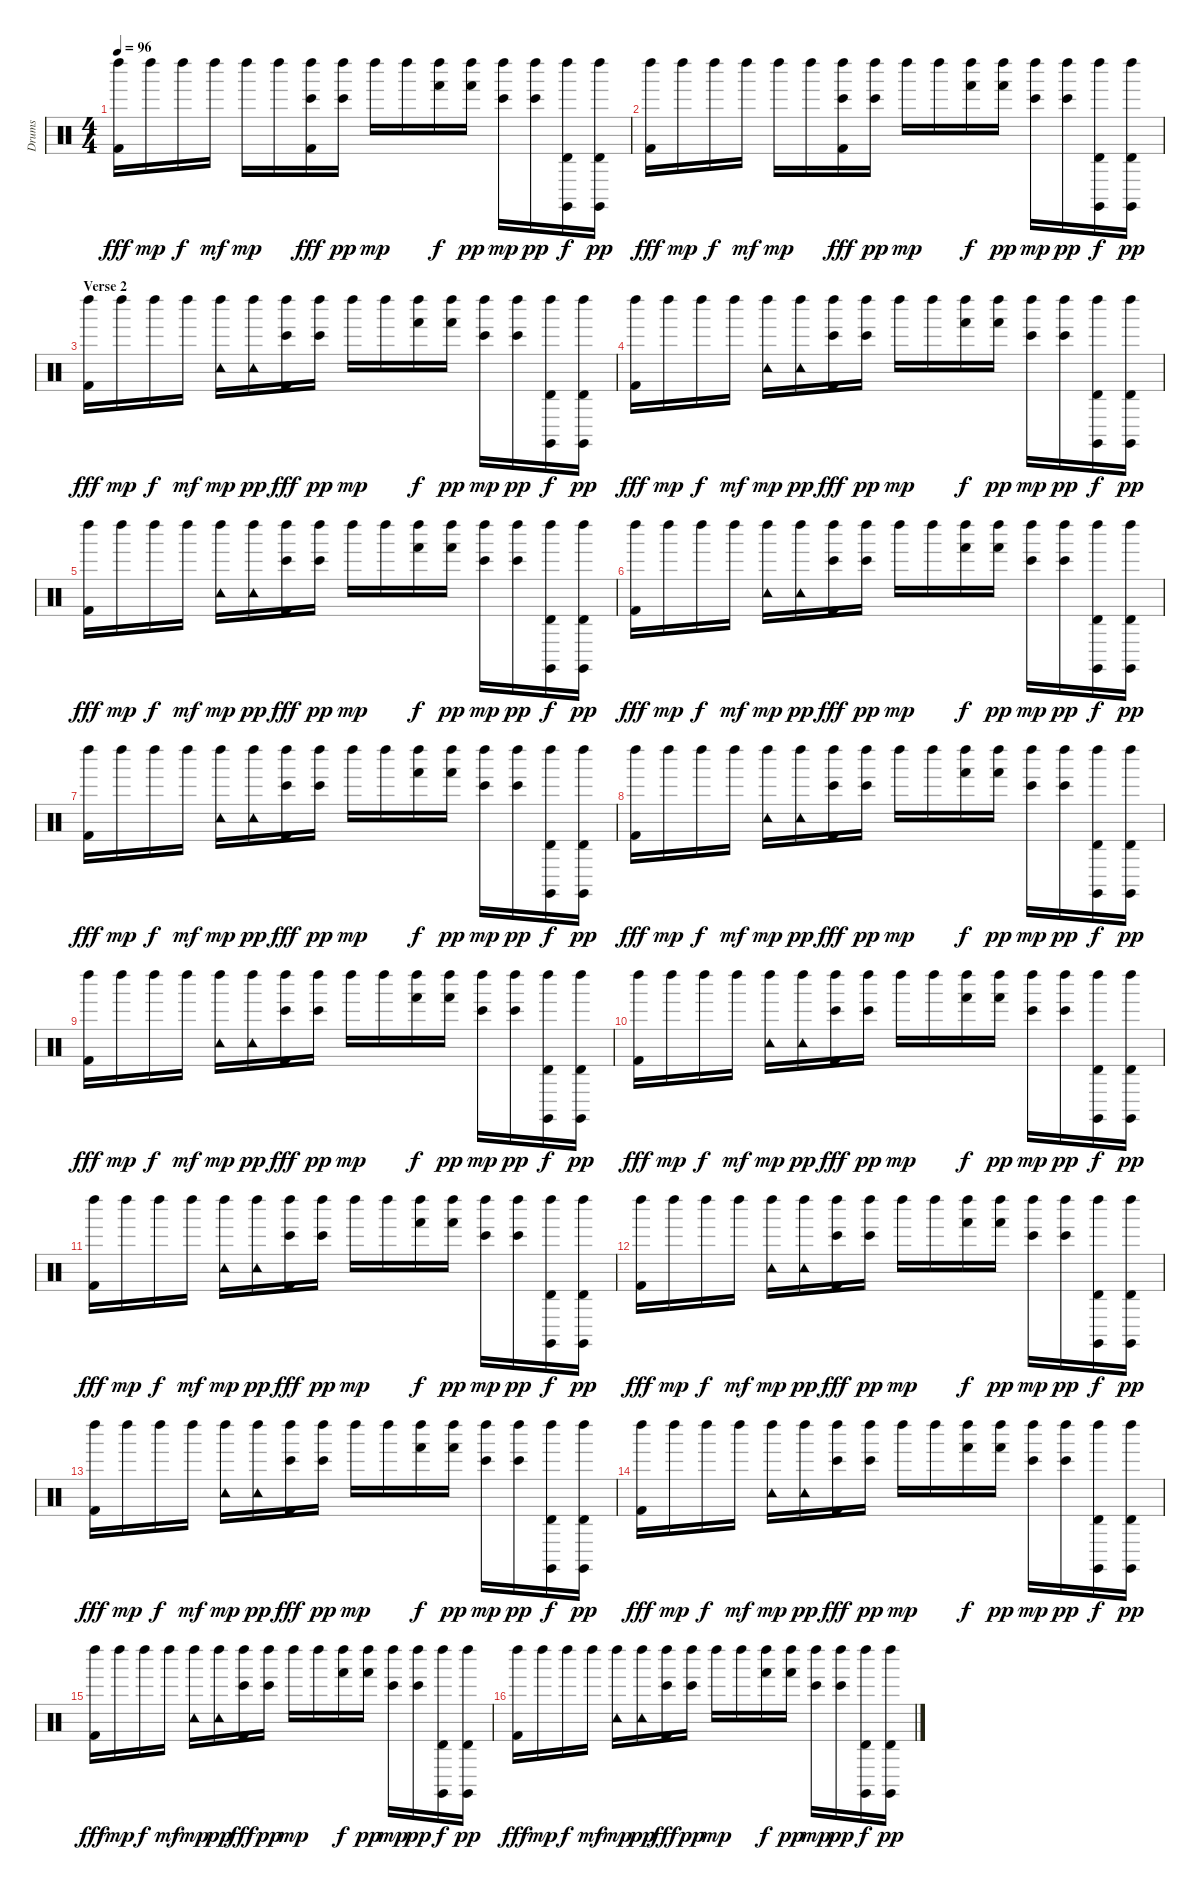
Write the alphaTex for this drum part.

\track ("Drums" "Drums") {instrument percussion}
\staff {score}
\articulation defaults
\ts (4 4)
\tempo 96
\clef neutral
\ks c
("Left Maraca (hit)" "Kick (hit) 2").16{dy fff} "Left Maraca (hit)".16{dy mp} "Left Maraca (hit)".16{dy f} "Left Maraca (hit)".16{dy mf} "Left Maraca (hit)".16{dy mp} "Left Maraca (hit)".16 ("Left Maraca (hit)" "Bongo High (hit)" "Kick (hit) 2").16{dy fff} ("Left Maraca (hit)" "Bongo High (hit)").16{dy pp} "Left Maraca (hit)".16{dy mp} "Left Maraca (hit)".16 ("Left Maraca (hit)" "Hand (hit)").16{dy f} ("Left Maraca (hit)" "Hand (hit)").16{dy pp} ("Left Maraca (hit)" "Bongo High (hit)").16{dy mp} ("Left Maraca (hit)" "Bongo High (hit)").16{dy pp} ("Left Maraca (hit)" "Claves (hit)" "Timbale high (hit)").16{dy f} ("Left Maraca (hit)" "Claves (hit)" "Timbale high (hit)").16{dy pp} |
("Left Maraca (hit)" "Kick (hit) 2").16{dy fff} "Left Maraca (hit)".16{dy mp} "Left Maraca (hit)".16{dy f} "Left Maraca (hit)".16{dy mf} "Left Maraca (hit)".16{dy mp} "Left Maraca (hit)".16 ("Left Maraca (hit)" "Bongo High (hit)" "Kick (hit) 2").16{dy fff} ("Left Maraca (hit)" "Bongo High (hit)").16{dy pp} "Left Maraca (hit)".16{dy mp} "Left Maraca (hit)".16 ("Left Maraca (hit)" "Hand (hit)").16{dy f} ("Left Maraca (hit)" "Hand (hit)").16{dy pp} ("Left Maraca (hit)" "Bongo High (hit)").16{dy mp} ("Left Maraca (hit)" "Bongo High (hit)").16{dy pp} ("Left Maraca (hit)" "Claves (hit)" "Timbale high (hit)").16{dy f} ("Left Maraca (hit)" "Claves (hit)" "Timbale high (hit)").16{dy pp} |
\section ("" "Verse 2")
("Left Maraca (hit)" "Kick (hit) 2").16{dy fff} "Left Maraca (hit)".16{dy mp} "Left Maraca (hit)".16{dy f} "Left Maraca (hit)".16{dy mf} ("Left Maraca (hit)" "Tambourine (hit)").16{dy mp} ("Left Maraca (hit)" "Tambourine (hit)").16{dy pp} ("Left Maraca (hit)" "Bongo High (hit)" "Kick (hit) 2").16{dy fff} ("Left Maraca (hit)" "Bongo High (hit)").16{dy pp} "Left Maraca (hit)".16{dy mp} "Left Maraca (hit)".16 ("Left Maraca (hit)" "Hand (hit)").16{dy f} ("Left Maraca (hit)" "Hand (hit)").16{dy pp} ("Left Maraca (hit)" "Bongo High (hit)").16{dy mp} ("Left Maraca (hit)" "Bongo High (hit)").16{dy pp} ("Left Maraca (hit)" "Claves (hit)" "Timbale high (hit)").16{dy f} ("Left Maraca (hit)" "Claves (hit)" "Timbale high (hit)").16{dy pp} |
("Left Maraca (hit)" "Kick (hit) 2").16{dy fff} "Left Maraca (hit)".16{dy mp} "Left Maraca (hit)".16{dy f} "Left Maraca (hit)".16{dy mf} ("Left Maraca (hit)" "Tambourine (hit)").16{dy mp} ("Left Maraca (hit)" "Tambourine (hit)").16{dy pp} ("Left Maraca (hit)" "Bongo High (hit)" "Kick (hit) 2").16{dy fff} ("Left Maraca (hit)" "Bongo High (hit)").16{dy pp} "Left Maraca (hit)".16{dy mp} "Left Maraca (hit)".16 ("Left Maraca (hit)" "Hand (hit)").16{dy f} ("Left Maraca (hit)" "Hand (hit)").16{dy pp} ("Left Maraca (hit)" "Bongo High (hit)").16{dy mp} ("Left Maraca (hit)" "Bongo High (hit)").16{dy pp} ("Left Maraca (hit)" "Claves (hit)" "Timbale high (hit)").16{dy f} ("Left Maraca (hit)" "Claves (hit)" "Timbale high (hit)").16{dy pp} |
("Left Maraca (hit)" "Kick (hit) 2").16{dy fff} "Left Maraca (hit)".16{dy mp} "Left Maraca (hit)".16{dy f} "Left Maraca (hit)".16{dy mf} ("Left Maraca (hit)" "Tambourine (hit)").16{dy mp} ("Left Maraca (hit)" "Tambourine (hit)").16{dy pp} ("Left Maraca (hit)" "Bongo High (hit)" "Kick (hit) 2").16{dy fff} ("Left Maraca (hit)" "Bongo High (hit)").16{dy pp} "Left Maraca (hit)".16{dy mp} "Left Maraca (hit)".16 ("Left Maraca (hit)" "Hand (hit)").16{dy f} ("Left Maraca (hit)" "Hand (hit)").16{dy pp} ("Left Maraca (hit)" "Bongo High (hit)").16{dy mp} ("Left Maraca (hit)" "Bongo High (hit)").16{dy pp} ("Left Maraca (hit)" "Claves (hit)" "Timbale high (hit)").16{dy f} ("Left Maraca (hit)" "Claves (hit)" "Timbale high (hit)").16{dy pp} |
("Left Maraca (hit)" "Kick (hit) 2").16{dy fff} "Left Maraca (hit)".16{dy mp} "Left Maraca (hit)".16{dy f} "Left Maraca (hit)".16{dy mf} ("Left Maraca (hit)" "Tambourine (hit)").16{dy mp} ("Left Maraca (hit)" "Tambourine (hit)").16{dy pp} ("Left Maraca (hit)" "Bongo High (hit)" "Kick (hit) 2").16{dy fff} ("Left Maraca (hit)" "Bongo High (hit)").16{dy pp} "Left Maraca (hit)".16{dy mp} "Left Maraca (hit)".16 ("Left Maraca (hit)" "Hand (hit)").16{dy f} ("Left Maraca (hit)" "Hand (hit)").16{dy pp} ("Left Maraca (hit)" "Bongo High (hit)").16{dy mp} ("Left Maraca (hit)" "Bongo High (hit)").16{dy pp} ("Left Maraca (hit)" "Claves (hit)" "Timbale high (hit)").16{dy f} ("Left Maraca (hit)" "Claves (hit)" "Timbale high (hit)").16{dy pp} |
("Left Maraca (hit)" "Kick (hit) 2").16{dy fff} "Left Maraca (hit)".16{dy mp} "Left Maraca (hit)".16{dy f} "Left Maraca (hit)".16{dy mf} ("Left Maraca (hit)" "Tambourine (hit)").16{dy mp} ("Left Maraca (hit)" "Tambourine (hit)").16{dy pp} ("Left Maraca (hit)" "Bongo High (hit)" "Kick (hit) 2").16{dy fff} ("Left Maraca (hit)" "Bongo High (hit)").16{dy pp} "Left Maraca (hit)".16{dy mp} "Left Maraca (hit)".16 ("Left Maraca (hit)" "Hand (hit)").16{dy f} ("Left Maraca (hit)" "Hand (hit)").16{dy pp} ("Left Maraca (hit)" "Bongo High (hit)").16{dy mp} ("Left Maraca (hit)" "Bongo High (hit)").16{dy pp} ("Left Maraca (hit)" "Claves (hit)" "Timbale high (hit)").16{dy f} ("Left Maraca (hit)" "Claves (hit)" "Timbale high (hit)").16{dy pp} |
("Left Maraca (hit)" "Kick (hit) 2").16{dy fff} "Left Maraca (hit)".16{dy mp} "Left Maraca (hit)".16{dy f} "Left Maraca (hit)".16{dy mf} ("Left Maraca (hit)" "Tambourine (hit)").16{dy mp} ("Left Maraca (hit)" "Tambourine (hit)").16{dy pp} ("Left Maraca (hit)" "Bongo High (hit)" "Kick (hit) 2").16{dy fff} ("Left Maraca (hit)" "Bongo High (hit)").16{dy pp} "Left Maraca (hit)".16{dy mp} "Left Maraca (hit)".16 ("Left Maraca (hit)" "Hand (hit)").16{dy f} ("Left Maraca (hit)" "Hand (hit)").16{dy pp} ("Left Maraca (hit)" "Bongo High (hit)").16{dy mp} ("Left Maraca (hit)" "Bongo High (hit)").16{dy pp} ("Left Maraca (hit)" "Claves (hit)" "Timbale high (hit)").16{dy f} ("Left Maraca (hit)" "Claves (hit)" "Timbale high (hit)").16{dy pp} |
("Left Maraca (hit)" "Kick (hit) 2").16{dy fff} "Left Maraca (hit)".16{dy mp} "Left Maraca (hit)".16{dy f} "Left Maraca (hit)".16{dy mf} ("Left Maraca (hit)" "Tambourine (hit)").16{dy mp} ("Left Maraca (hit)" "Tambourine (hit)").16{dy pp} ("Left Maraca (hit)" "Bongo High (hit)" "Kick (hit) 2").16{dy fff} ("Left Maraca (hit)" "Bongo High (hit)").16{dy pp} "Left Maraca (hit)".16{dy mp} "Left Maraca (hit)".16 ("Left Maraca (hit)" "Hand (hit)").16{dy f} ("Left Maraca (hit)" "Hand (hit)").16{dy pp} ("Left Maraca (hit)" "Bongo High (hit)").16{dy mp} ("Left Maraca (hit)" "Bongo High (hit)").16{dy pp} ("Left Maraca (hit)" "Claves (hit)" "Timbale high (hit)").16{dy f} ("Left Maraca (hit)" "Claves (hit)" "Timbale high (hit)").16{dy pp} |
("Left Maraca (hit)" "Kick (hit) 2").16{dy fff} "Left Maraca (hit)".16{dy mp} "Left Maraca (hit)".16{dy f} "Left Maraca (hit)".16{dy mf} ("Left Maraca (hit)" "Tambourine (hit)").16{dy mp} ("Left Maraca (hit)" "Tambourine (hit)").16{dy pp} ("Left Maraca (hit)" "Bongo High (hit)" "Kick (hit) 2").16{dy fff} ("Left Maraca (hit)" "Bongo High (hit)").16{dy pp} "Left Maraca (hit)".16{dy mp} "Left Maraca (hit)".16 ("Left Maraca (hit)" "Hand (hit)").16{dy f} ("Left Maraca (hit)" "Hand (hit)").16{dy pp} ("Left Maraca (hit)" "Bongo High (hit)").16{dy mp} ("Left Maraca (hit)" "Bongo High (hit)").16{dy pp} ("Left Maraca (hit)" "Claves (hit)" "Timbale high (hit)").16{dy f} ("Left Maraca (hit)" "Claves (hit)" "Timbale high (hit)").16{dy pp} |
("Left Maraca (hit)" "Kick (hit) 2").16{dy fff} "Left Maraca (hit)".16{dy mp} "Left Maraca (hit)".16{dy f} "Left Maraca (hit)".16{dy mf} ("Left Maraca (hit)" "Tambourine (hit)").16{dy mp} ("Left Maraca (hit)" "Tambourine (hit)").16{dy pp} ("Left Maraca (hit)" "Bongo High (hit)" "Kick (hit) 2").16{dy fff} ("Left Maraca (hit)" "Bongo High (hit)").16{dy pp} "Left Maraca (hit)".16{dy mp} "Left Maraca (hit)".16 ("Left Maraca (hit)" "Hand (hit)").16{dy f} ("Left Maraca (hit)" "Hand (hit)").16{dy pp} ("Left Maraca (hit)" "Bongo High (hit)").16{dy mp} ("Left Maraca (hit)" "Bongo High (hit)").16{dy pp} ("Left Maraca (hit)" "Claves (hit)" "Timbale high (hit)").16{dy f} ("Left Maraca (hit)" "Claves (hit)" "Timbale high (hit)").16{dy pp} |
("Left Maraca (hit)" "Kick (hit) 2").16{dy fff} "Left Maraca (hit)".16{dy mp} "Left Maraca (hit)".16{dy f} "Left Maraca (hit)".16{dy mf} ("Left Maraca (hit)" "Tambourine (hit)").16{dy mp} ("Left Maraca (hit)" "Tambourine (hit)").16{dy pp} ("Left Maraca (hit)" "Bongo High (hit)" "Kick (hit) 2").16{dy fff} ("Left Maraca (hit)" "Bongo High (hit)").16{dy pp} "Left Maraca (hit)".16{dy mp} "Left Maraca (hit)".16 ("Left Maraca (hit)" "Hand (hit)").16{dy f} ("Left Maraca (hit)" "Hand (hit)").16{dy pp} ("Left Maraca (hit)" "Bongo High (hit)").16{dy mp} ("Left Maraca (hit)" "Bongo High (hit)").16{dy pp} ("Left Maraca (hit)" "Claves (hit)" "Timbale high (hit)").16{dy f} ("Left Maraca (hit)" "Claves (hit)" "Timbale high (hit)").16{dy pp} |
("Left Maraca (hit)" "Kick (hit) 2").16{dy fff} "Left Maraca (hit)".16{dy mp} "Left Maraca (hit)".16{dy f} "Left Maraca (hit)".16{dy mf} ("Left Maraca (hit)" "Tambourine (hit)").16{dy mp} ("Left Maraca (hit)" "Tambourine (hit)").16{dy pp} ("Left Maraca (hit)" "Bongo High (hit)" "Kick (hit) 2").16{dy fff} ("Left Maraca (hit)" "Bongo High (hit)").16{dy pp} "Left Maraca (hit)".16{dy mp} "Left Maraca (hit)".16 ("Left Maraca (hit)" "Hand (hit)").16{dy f} ("Left Maraca (hit)" "Hand (hit)").16{dy pp} ("Left Maraca (hit)" "Bongo High (hit)").16{dy mp} ("Left Maraca (hit)" "Bongo High (hit)").16{dy pp} ("Left Maraca (hit)" "Claves (hit)" "Timbale high (hit)").16{dy f} ("Left Maraca (hit)" "Claves (hit)" "Timbale high (hit)").16{dy pp} |
("Left Maraca (hit)" "Kick (hit) 2").16{dy fff} "Left Maraca (hit)".16{dy mp} "Left Maraca (hit)".16{dy f} "Left Maraca (hit)".16{dy mf} ("Left Maraca (hit)" "Tambourine (hit)").16{dy mp} ("Left Maraca (hit)" "Tambourine (hit)").16{dy pp} ("Left Maraca (hit)" "Bongo High (hit)" "Kick (hit) 2").16{dy fff} ("Left Maraca (hit)" "Bongo High (hit)").16{dy pp} "Left Maraca (hit)".16{dy mp} "Left Maraca (hit)".16 ("Left Maraca (hit)" "Hand (hit)").16{dy f} ("Left Maraca (hit)" "Hand (hit)").16{dy pp} ("Left Maraca (hit)" "Bongo High (hit)").16{dy mp} ("Left Maraca (hit)" "Bongo High (hit)").16{dy pp} ("Left Maraca (hit)" "Claves (hit)" "Timbale high (hit)").16{dy f} ("Left Maraca (hit)" "Claves (hit)" "Timbale high (hit)").16{dy pp} |
("Left Maraca (hit)" "Kick (hit) 2").16{dy fff} "Left Maraca (hit)".16{dy mp} "Left Maraca (hit)".16{dy f} "Left Maraca (hit)".16{dy mf} ("Left Maraca (hit)" "Tambourine (hit)").16{dy mp} ("Left Maraca (hit)" "Tambourine (hit)").16{dy pp} ("Left Maraca (hit)" "Bongo High (hit)" "Kick (hit) 2").16{dy fff} ("Left Maraca (hit)" "Bongo High (hit)").16{dy pp} "Left Maraca (hit)".16{dy mp} "Left Maraca (hit)".16 ("Left Maraca (hit)" "Hand (hit)").16{dy f} ("Left Maraca (hit)" "Hand (hit)").16{dy pp} ("Left Maraca (hit)" "Bongo High (hit)").16{dy mp} ("Left Maraca (hit)" "Bongo High (hit)").16{dy pp} ("Left Maraca (hit)" "Claves (hit)" "Timbale high (hit)").16{dy f} ("Left Maraca (hit)" "Claves (hit)" "Timbale high (hit)").16{dy pp} |
("Left Maraca (hit)" "Kick (hit) 2").16{dy fff} "Left Maraca (hit)".16{dy mp} "Left Maraca (hit)".16{dy f} "Left Maraca (hit)".16{dy mf} ("Left Maraca (hit)" "Tambourine (hit)").16{dy mp} ("Left Maraca (hit)" "Tambourine (hit)").16{dy pp} ("Left Maraca (hit)" "Bongo High (hit)" "Kick (hit) 2").16{dy fff} ("Left Maraca (hit)" "Bongo High (hit)").16{dy pp} "Left Maraca (hit)".16{dy mp} "Left Maraca (hit)".16 ("Left Maraca (hit)" "Hand (hit)").16{dy f} ("Left Maraca (hit)" "Hand (hit)").16{dy pp} ("Left Maraca (hit)" "Bongo High (hit)").16{dy mp} ("Left Maraca (hit)" "Bongo High (hit)").16{dy pp} ("Left Maraca (hit)" "Claves (hit)" "Timbale high (hit)").16{dy f} ("Left Maraca (hit)" "Claves (hit)" "Timbale high (hit)").16{dy pp}
